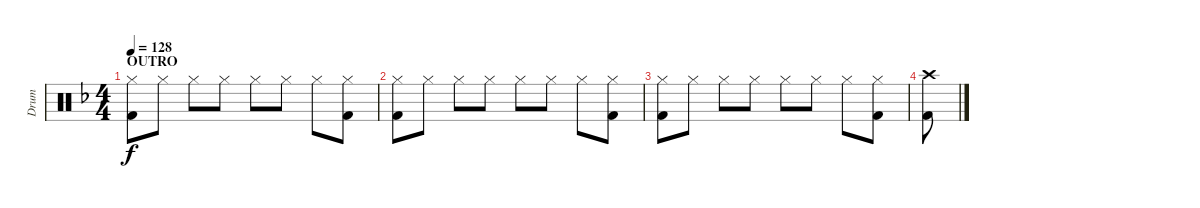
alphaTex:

\track ("Drum" "Drum") {instrument percussion}
\staff {score}
\articulation defaults
\ts (4 4)
\section ("" "OUTRO")
\tempo 128
\clef neutral
\ks f
("Hi-Hat (closed)" "Kick (hit) 2").8{dy f} "Hi-Hat (closed)".8 "Hi-Hat (closed)".8 "Hi-Hat (closed)".8 "Hi-Hat (closed)".8 "Hi-Hat (closed)".8 "Hi-Hat (closed)".8 ("Hi-Hat (closed)" "Kick (hit) 2").8 |
("Hi-Hat (closed)" "Kick (hit) 2").8 "Hi-Hat (closed)".8 "Hi-Hat (closed)".8 "Hi-Hat (closed)".8 "Hi-Hat (closed)".8 "Hi-Hat (closed)".8 "Hi-Hat (closed)".8 ("Hi-Hat (closed)" "Kick (hit) 2").8 |
("Hi-Hat (closed)" "Kick (hit) 2").8 "Hi-Hat (closed)".8 "Hi-Hat (closed)".8 "Hi-Hat (closed)".8 "Hi-Hat (closed)".8 "Hi-Hat (closed)".8 "Hi-Hat (closed)".8 ("Hi-Hat (closed)" "Kick (hit) 2").8 |
("Crash high (hit)" "Kick (hit) 2").8
